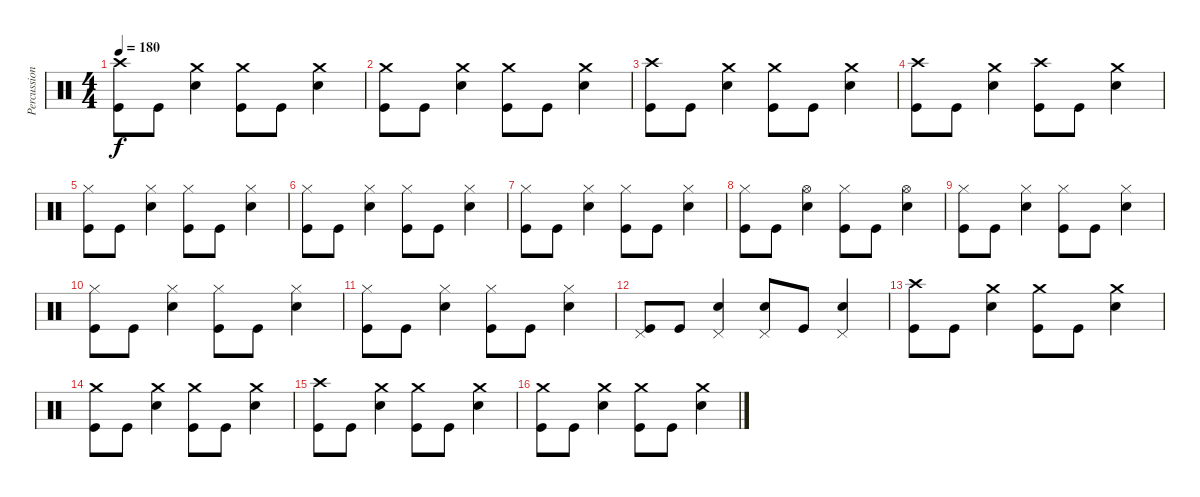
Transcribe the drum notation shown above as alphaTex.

\track ("Percussion" "Percussion") {instrument percussion}
\staff {score}
\articulation defaults
\ts (4 4)
\tempo 180
\clef neutral
\ks c
("Crash high (hit)" "Kick (hit)").8{dy f} "Kick (hit)".8 ("Crash medium (hit)" "Snare (hit) 2").4 ("Crash medium (hit)" "Kick (hit)").8 "Kick (hit)".8 ("Crash medium (hit)" "Snare (hit) 2").4 |
("Crash medium (hit)" "Kick (hit)").8 "Kick (hit)".8 ("Crash medium (hit)" "Snare (hit) 2").4 ("Crash medium (hit)" "Kick (hit)").8 "Kick (hit)".8 ("Crash medium (hit)" "Snare (hit) 2").4 |
("Crash high (hit)" "Kick (hit)").8 "Kick (hit)".8 ("Crash medium (hit)" "Snare (hit) 2").4 ("Crash medium (hit)" "Kick (hit)").8 "Kick (hit)".8 ("Crash medium (hit)" "Snare (hit) 2").4 |
("Crash high (hit)" "Kick (hit)").8 "Kick (hit)".8 ("Crash medium (hit)" "Snare (hit) 2").4 ("Crash high (hit)" "Kick (hit)").8 "Kick (hit)".8 ("Crash medium (hit)" "Snare (hit) 2").4 |
("Hi-Hat (closed)" "Kick (hit)").8 "Kick (hit)".8 ("Hi-Hat (closed)" "Snare (hit) 2").4 ("Hi-Hat (closed)" "Kick (hit)").8 "Kick (hit)".8 ("Hi-Hat (closed)" "Snare (hit) 2").4 |
("Hi-Hat (closed)" "Kick (hit)").8 "Kick (hit)".8 ("Hi-Hat (closed)" "Snare (hit) 2").4 ("Hi-Hat (closed)" "Kick (hit)").8 "Kick (hit)".8 ("Hi-Hat (closed)" "Snare (hit) 2").4 |
("Hi-Hat (closed)" "Kick (hit)").8 "Kick (hit)".8 ("Hi-Hat (closed)" "Snare (hit) 2").4 ("Hi-Hat (closed)" "Kick (hit)").8 "Kick (hit)".8 ("Hi-Hat (closed)" "Snare (hit) 2").4 |
("Hi-Hat (closed)" "Kick (hit)").8 "Kick (hit)".8 ("Hi-Hat (open)" "Snare (hit) 2").4 ("Hi-Hat (closed)" "Kick (hit)").8 "Kick (hit)".8 ("Hi-Hat (open)" "Snare (hit) 2").4 |
("Hi-Hat (closed)" "Kick (hit)").8 "Kick (hit)".8 ("Hi-Hat (closed)" "Snare (hit) 2").4 ("Hi-Hat (closed)" "Kick (hit)").8 "Kick (hit)".8 ("Hi-Hat (closed)" "Snare (hit) 2").4 |
("Hi-Hat (closed)" "Kick (hit)").8 "Kick (hit)".8 ("Hi-Hat (closed)" "Snare (hit) 2").4 ("Hi-Hat (closed)" "Kick (hit)").8 "Kick (hit)".8 ("Hi-Hat (closed)" "Snare (hit) 2").4 |
("Hi-Hat (closed)" "Kick (hit)").8 "Kick (hit)".8 ("Hi-Hat (closed)" "Snare (hit) 2").4 ("Hi-Hat (closed)" "Kick (hit)").8 "Kick (hit)".8 ("Hi-Hat (closed)" "Snare (hit) 2").4 |
("Pedal Hi-Hat (hit)" "Kick (hit)").8 "Kick (hit)".8 ("Pedal Hi-Hat (hit)" "Snare (hit) 2").4 ("Pedal Hi-Hat (hit)" "Snare (hit) 2").8 "Kick (hit)".8 ("Pedal Hi-Hat (hit)" "Snare (hit) 2").4 |
("Crash high (hit)" "Kick (hit)").8 "Kick (hit)".8 ("Crash medium (hit)" "Snare (hit) 2").4 ("Crash medium (hit)" "Kick (hit)").8 "Kick (hit)".8 ("Crash medium (hit)" "Snare (hit) 2").4 |
("Crash medium (hit)" "Kick (hit)").8 "Kick (hit)".8 ("Crash medium (hit)" "Snare (hit) 2").4 ("Crash medium (hit)" "Kick (hit)").8 "Kick (hit)".8 ("Crash medium (hit)" "Snare (hit) 2").4 |
("Crash high (hit)" "Kick (hit)").8 "Kick (hit)".8 ("Crash medium (hit)" "Snare (hit) 2").4 ("Crash medium (hit)" "Kick (hit)").8 "Kick (hit)".8 ("Crash medium (hit)" "Snare (hit) 2").4 |
("Crash medium (hit)" "Kick (hit)").8 "Kick (hit)".8 ("Crash medium (hit)" "Snare (hit) 2").4 ("Crash medium (hit)" "Kick (hit)").8 "Kick (hit)".8 ("Crash medium (hit)" "Snare (hit) 2").4
